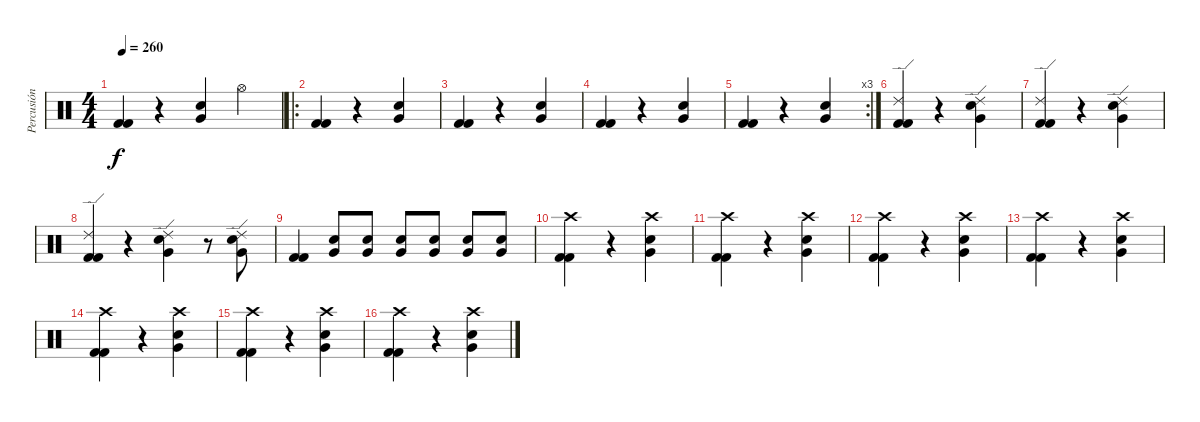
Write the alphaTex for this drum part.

\track ("Percusión" "Percusión") {instrument percussion}
\staff {score}
\articulation defaults
\ts (4 4)
\tempo 260
\clef neutral
\ks c
("Kick (hit) 2" "Kick (hit) 2").4{dy f} r.4 ("Very Low Tom (hit)" "Electric Snare (hit)").4 "Hi-Hat (open)".4 |
\ro
("Kick (hit) 2" "Kick (hit) 2").4 r.4 ("Very Low Tom (hit)" "Electric Snare (hit)").4 |
("Kick (hit) 2" "Kick (hit) 2").4 r.4 ("Very Low Tom (hit)" "Electric Snare (hit)").4 |
("Kick (hit) 2" "Kick (hit) 2").4 r.4 ("Very Low Tom (hit)" "Electric Snare (hit)").4 |
\rc 3
("Kick (hit) 2" "Kick (hit) 2").4 r.4 ("Very Low Tom (hit)" "Electric Snare (hit)").4 |
("Kick (hit) 2" "Kick (hit) 2" "Ride (edge) 2").4 r.4 ("Very Low Tom (hit)" "Electric Snare (hit)" "Ride (edge) 2").4 |
("Kick (hit) 2" "Kick (hit) 2" "Ride (edge) 2").4 r.4 ("Very Low Tom (hit)" "Electric Snare (hit)" "Ride (edge) 2").4 |
("Kick (hit) 2" "Kick (hit) 2" "Ride (edge) 2").4 r.4 ("Very Low Tom (hit)" "Electric Snare (hit)" "Ride (edge) 2").4 r.8 ("Very Low Tom (hit)" "Electric Snare (hit)" "Ride (edge) 2").8 |
("Kick (hit) 2" "Kick (hit) 2").4 ("Very Low Tom (hit)" "Electric Snare (hit)").8 ("Very Low Tom (hit)" "Electric Snare (hit)").8 ("Very Low Tom (hit)" "Electric Snare (hit)").8 ("Very Low Tom (hit)" "Electric Snare (hit)").8 ("Very Low Tom (hit)" "Electric Snare (hit)").8 ("Very Low Tom (hit)" "Electric Snare (hit)").8 |
("Kick (hit) 2" "Kick (hit) 2" "Crash high (hit)").4 r.4 ("Very Low Tom (hit)" "Electric Snare (hit)" "Crash high (hit)").4 |
("Kick (hit) 2" "Kick (hit) 2" "Crash high (hit)").4 r.4 ("Very Low Tom (hit)" "Electric Snare (hit)" "Crash high (hit)").4 |
("Kick (hit) 2" "Kick (hit) 2" "Crash high (hit)").4 r.4 ("Very Low Tom (hit)" "Electric Snare (hit)" "Crash high (hit)").4 |
("Kick (hit) 2" "Kick (hit) 2" "Crash high (hit)").4 r.4 ("Very Low Tom (hit)" "Electric Snare (hit)" "Crash high (hit)").4 |
("Kick (hit) 2" "Kick (hit) 2" "Crash high (hit)").4 r.4 ("Very Low Tom (hit)" "Electric Snare (hit)" "Crash high (hit)").4 |
("Kick (hit) 2" "Kick (hit) 2" "Crash high (hit)").4 r.4 ("Very Low Tom (hit)" "Electric Snare (hit)" "Crash high (hit)").4 |
("Kick (hit) 2" "Kick (hit) 2" "Crash high (hit)").4 r.4 ("Very Low Tom (hit)" "Electric Snare (hit)" "Crash high (hit)").4
